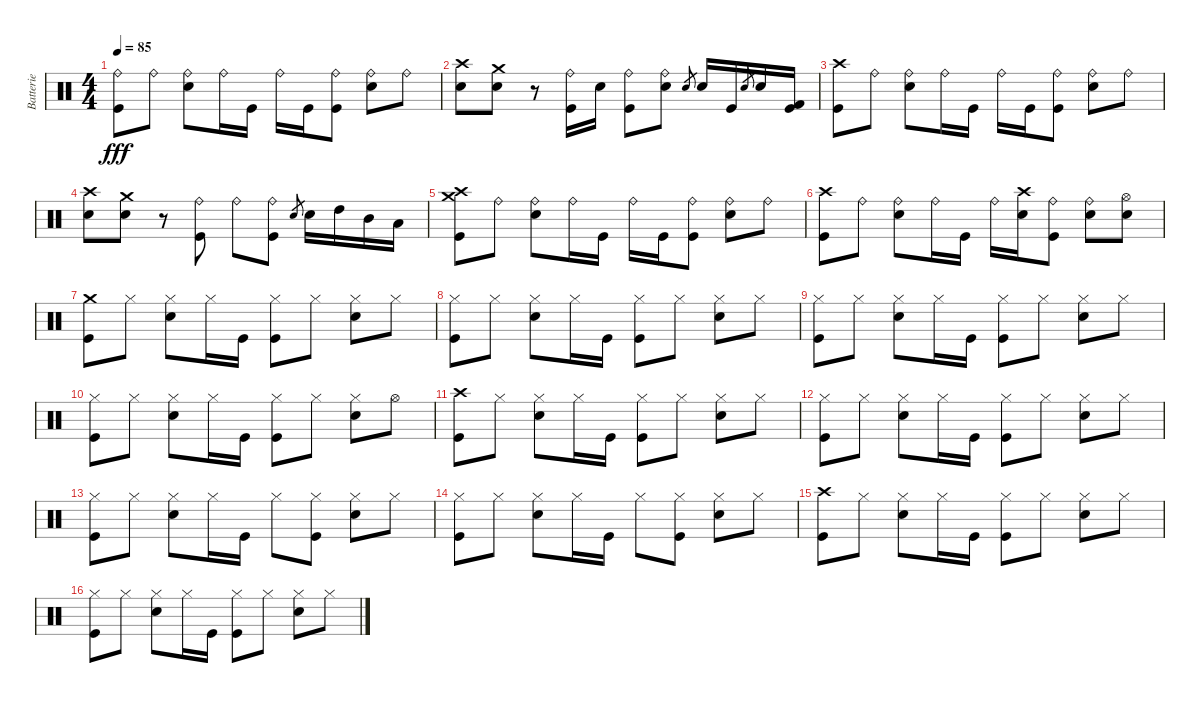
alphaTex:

\track ("Batterie" "Batterie") {instrument percussion}
\staff {score}
\articulation defaults
\ts (4 4)
\tempo 85
\clef neutral
\ks c
("Ride (bell)" "Kick (hit)").8{dy fff} "Ride (bell)".8 ("Ride (bell)" "Electric Snare (hit)").8 "Ride (bell)".16 "Kick (hit)".16 "Ride (bell)".16 "Kick (hit)".16 ("Ride (bell)" "Kick (hit)").8 ("Ride (bell)" "Electric Snare (hit)").8 "Ride (bell)".8 |
("Crash high (hit)" "Electric Snare (hit)").8 ("Crash medium (hit)" "Electric Snare (hit)").8 r.8 ("Ride (bell)" "Kick (hit)").16 "Electric Snare (hit)".16 ("Ride (bell)" "Kick (hit)").8 ("Ride (bell)" "Electric Snare (hit)").8 "Electric Snare (hit)".8{gr} "Electric Snare (hit)".16 "Kick (hit)".16 "Electric Snare (hit)".8{gr} "Electric Snare (hit)".16 ("Kick (hit) 2" "Kick (hit)").16 |
("Crash high (hit)" "Kick (hit)").8 "Ride (bell)".8 ("Ride (bell)" "Electric Snare (hit)").8 "Ride (bell)".16 "Kick (hit)".16 "Ride (bell)".16 "Kick (hit)".16 ("Ride (bell)" "Kick (hit)").8 ("Ride (bell)" "Electric Snare (hit)").8 "Ride (bell)".8 |
("Crash high (hit)" "Electric Snare (hit)").8 ("Crash medium (hit)" "Electric Snare (hit)").8 r.8 ("Ride (bell)" "Kick (hit)").8 "Ride (bell)".8 ("Ride (bell)" "Kick (hit)").8 "Electric Snare (hit)".8{gr} "Electric Snare (hit)".16 "High Tom (hit)".16 "Mid Tom (hit)".16 "Low Floor Tom (hit)".16 |
("Crash high (hit)" "Kick (hit)" "Crash medium (hit)").8 "Ride (bell)".8 ("Ride (bell)" "Electric Snare (hit)").8 "Ride (bell)".16 "Kick (hit)".16 "Ride (bell)".16 "Kick (hit)".16 ("Ride (bell)" "Kick (hit)").8 ("Ride (bell)" "Electric Snare (hit)").8 "Ride (bell)".8 |
("Crash high (hit)" "Kick (hit)").8 "Ride (bell)".8 ("Ride (bell)" "Electric Snare (hit)").8 "Ride (bell)".16 "Kick (hit)".16 "Ride (bell)".16 ("Crash high (hit)" "Electric Snare (hit)").16 ("Ride (bell)" "Kick (hit)").8 ("Ride (bell)" "Electric Snare (hit)").8 ("Hi-Hat (open)" "Electric Snare (hit)").8 |
("Crash medium (hit)" "Kick (hit)").8 "Hi-Hat (closed)".8 ("Hi-Hat (closed)" "Electric Snare (hit)").8 "Hi-Hat (closed)".16 "Kick (hit)".16 ("Hi-Hat (closed)" "Kick (hit)").8 "Hi-Hat (closed)".8 ("Hi-Hat (closed)" "Electric Snare (hit)").8 "Hi-Hat (closed)".8 |
("Hi-Hat (closed)" "Kick (hit)").8 "Hi-Hat (closed)".8 ("Hi-Hat (closed)" "Electric Snare (hit)").8 "Hi-Hat (closed)".16 "Kick (hit)".16 ("Hi-Hat (closed)" "Kick (hit)").8 "Hi-Hat (closed)".8 ("Hi-Hat (closed)" "Electric Snare (hit)").8 "Hi-Hat (closed)".8 |
("Hi-Hat (closed)" "Kick (hit)").8 "Hi-Hat (closed)".8 ("Hi-Hat (closed)" "Electric Snare (hit)").8 "Hi-Hat (closed)".16 "Kick (hit)".16 ("Hi-Hat (closed)" "Kick (hit)").8 "Hi-Hat (closed)".8 ("Hi-Hat (closed)" "Electric Snare (hit)").8 "Hi-Hat (closed)".8 |
("Hi-Hat (closed)" "Kick (hit)").8 "Hi-Hat (closed)".8 ("Hi-Hat (closed)" "Electric Snare (hit)").8 "Hi-Hat (closed)".16 "Kick (hit)".16 ("Hi-Hat (closed)" "Kick (hit)").8 "Hi-Hat (closed)".8 ("Hi-Hat (closed)" "Electric Snare (hit)").8 "Hi-Hat (open)".8 |
("Crash high (hit)" "Kick (hit)").8 "Hi-Hat (closed)".8 ("Hi-Hat (closed)" "Electric Snare (hit)").8 "Hi-Hat (closed)".16 "Kick (hit)".16 ("Hi-Hat (closed)" "Kick (hit)").8 "Hi-Hat (closed)".8 ("Hi-Hat (closed)" "Electric Snare (hit)").8 "Hi-Hat (closed)".8 |
("Hi-Hat (closed)" "Kick (hit)").8 "Hi-Hat (closed)".8 ("Hi-Hat (closed)" "Electric Snare (hit)").8 "Hi-Hat (closed)".16 "Kick (hit)".16 ("Hi-Hat (closed)" "Kick (hit)").8 "Hi-Hat (closed)".8 ("Hi-Hat (closed)" "Electric Snare (hit)").8 "Hi-Hat (closed)".8 |
("Hi-Hat (closed)" "Kick (hit)").8 "Hi-Hat (closed)".8 ("Hi-Hat (closed)" "Electric Snare (hit)").8 "Hi-Hat (closed)".16 "Kick (hit)".16 "Hi-Hat (closed)".8 ("Hi-Hat (closed)" "Kick (hit)").8 ("Hi-Hat (closed)" "Electric Snare (hit)").8 "Hi-Hat (closed)".8 |
("Hi-Hat (closed)" "Kick (hit)").8 "Hi-Hat (closed)".8 ("Hi-Hat (closed)" "Electric Snare (hit)").8 "Hi-Hat (closed)".16 "Kick (hit)".16 "Hi-Hat (closed)".8 ("Hi-Hat (closed)" "Kick (hit)").8 ("Hi-Hat (closed)" "Electric Snare (hit)").8 "Hi-Hat (closed)".8 |
("Crash high (hit)" "Kick (hit)").8 "Hi-Hat (closed)".8 ("Hi-Hat (closed)" "Electric Snare (hit)").8 "Hi-Hat (closed)".16 "Kick (hit)".16 ("Hi-Hat (closed)" "Kick (hit)").8 "Hi-Hat (closed)".8 ("Hi-Hat (closed)" "Electric Snare (hit)").8 "Hi-Hat (closed)".8 |
("Hi-Hat (closed)" "Kick (hit)").8 "Hi-Hat (closed)".8 ("Hi-Hat (closed)" "Electric Snare (hit)").8 "Hi-Hat (closed)".16 "Kick (hit)".16 ("Hi-Hat (closed)" "Kick (hit)").8 "Hi-Hat (closed)".8 ("Hi-Hat (closed)" "Electric Snare (hit)").8 "Hi-Hat (closed)".8
